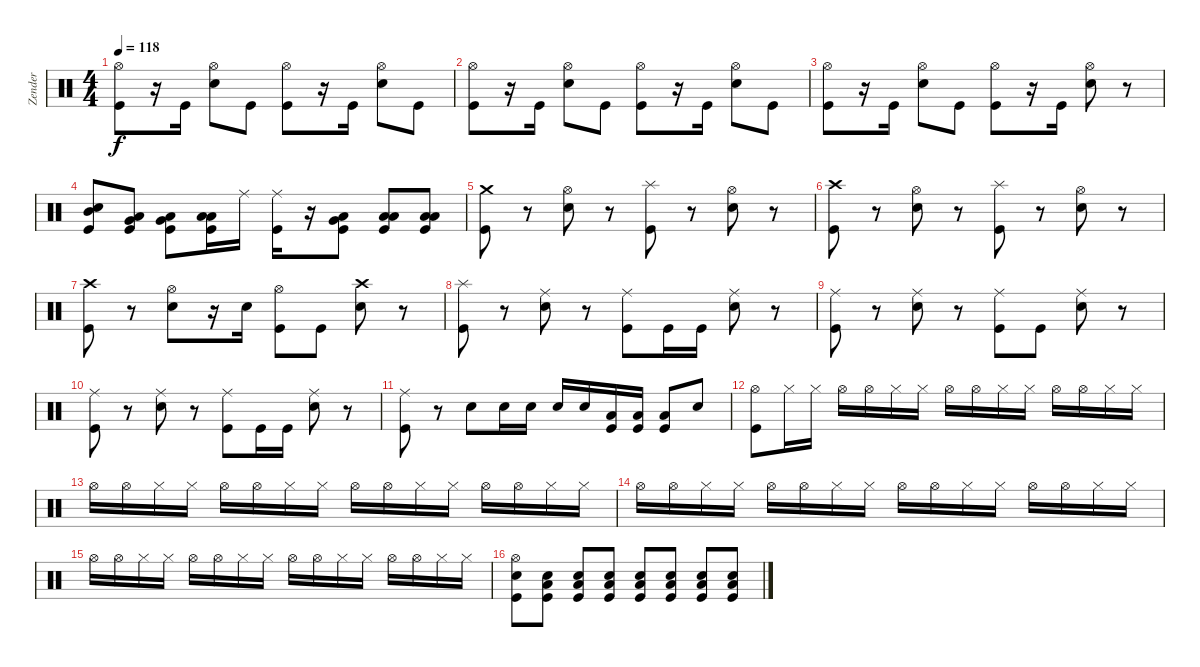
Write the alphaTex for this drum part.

\track ("Zender" "Zender") {instrument percussion}
\staff {score}
\articulation defaults
\ts (4 4)
\tempo 118
\clef neutral
\ks c
("Hi-Hat (open)" "Kick (hit)").8{dy f} r.16 "Kick (hit)".16 ("Hi-Hat (open)" "Snare (hit) 2").8 "Kick (hit)".8 ("Hi-Hat (open)" "Kick (hit)").8 r.16 "Kick (hit)".16 ("Hi-Hat (open)" "Snare (hit) 2").8 "Kick (hit)".8 |
("Hi-Hat (open)" "Kick (hit)").8 r.16 "Kick (hit)".16 ("Hi-Hat (open)" "Snare (hit) 2").8 "Kick (hit)".8 ("Hi-Hat (open)" "Kick (hit)").8 r.16 "Kick (hit)".16 ("Hi-Hat (open)" "Snare (hit) 2").8 "Kick (hit)".8 |
("Hi-Hat (open)" "Kick (hit)").8 r.16 "Kick (hit)".16 ("Hi-Hat (open)" "Snare (hit) 2").8 "Kick (hit)".8 ("Hi-Hat (open)" "Kick (hit)").8 r.16 "Kick (hit)".16 ("Hi-Hat (open)" "Snare (hit) 2").8 r.8 |
("Mid Tom (hit)" "Snare (hit) 2" "Kick (hit)").8 ("Low Tom (hit)" "Very Low Tom (hit)" "Kick (hit)").8 ("Very Low Tom (hit)" "Low Floor Tom (hit)" "Kick (hit)").8 ("Low Floor Tom (hit)" "Low Floor Tom (hit)" "Kick (hit)").16 "Ride (middle)".16 ("Ride (middle)" "Kick (hit)").16 r.16 ("Very Low Tom (hit)" "Low Floor Tom (hit)" "Kick (hit)").8 ("Low Floor Tom (hit)" "Low Floor Tom (hit)" "Kick (hit)").8 ("Low Floor Tom (hit)" "Low Floor Tom (hit)" "Kick (hit)").8 |
("Crash medium (hit)" "Kick (hit)").8 r.8 ("Hi-Hat (open)" "Snare (hit) 2").8 r.8 ("Splash (hit)" "Kick (hit)").8 r.8 ("Hi-Hat (open)" "Snare (hit) 2").8 r.8 |
("Crash high (hit)" "Kick (hit)").8 r.8 ("Hi-Hat (open)" "Snare (hit) 2").8 r.8 ("Splash (hit)" "Kick (hit)").8 r.8 ("Hi-Hat (open)" "Snare (hit) 2").8 r.8 |
("Crash high (hit)" "Kick (hit)").8 r.8 ("Hi-Hat (open)" "Snare (hit) 2").8 r.16 "Snare (hit) 2".16 ("Hi-Hat (open)" "Kick (hit)").8 "Kick (hit)".8 ("Crash high (hit)" "Snare (hit) 2").8 r.8 |
("Splash (hit)" "Kick (hit)").8 r.8 ("Ride (middle)" "Snare (hit) 2").8 r.8 ("Ride (middle)" "Kick (hit)").8 "Kick (hit)".16 "Kick (hit)".16 ("Ride (middle)" "Snare (hit) 2").8 r.8 |
("Ride (middle)" "Kick (hit)").8 r.8 ("Ride (middle)" "Snare (hit) 2").8 r.8 ("Ride (middle)" "Kick (hit)").8 "Kick (hit)".8 ("Ride (middle)" "Snare (hit) 2").8 r.8 |
("Ride (middle)" "Kick (hit)").8 r.8 ("Ride (middle)" "Snare (hit) 2").8 r.8 ("Ride (middle)" "Kick (hit)").8 "Kick (hit)".16 "Kick (hit)".16 ("Ride (middle)" "Snare (hit) 2").8 r.8 |
("Ride (middle)" "Kick (hit)").8 r.8 "Snare (hit) 2".8 "Snare (hit) 2".16 "Snare (hit) 2".16 "Snare (hit) 2".16 "Snare (hit) 2".16 ("Low Floor Tom (hit)" "Kick (hit)").16 ("Low Floor Tom (hit)" "Kick (hit)").16 ("Low Floor Tom (hit)" "Kick (hit)").8 "Snare (hit) 2".8 |
("Hi-Hat (open)" "Kick (hit)").8 "Hi-Hat (closed)".16 "Hi-Hat (closed)".16 "Hi-Hat (open)".16 "Hi-Hat (open)".16 "Hi-Hat (closed)".16 "Hi-Hat (closed)".16 "Hi-Hat (open)".16 "Hi-Hat (open)".16 "Hi-Hat (closed)".16 "Hi-Hat (closed)".16 "Hi-Hat (open)".16 "Hi-Hat (open)".16 "Hi-Hat (closed)".16 "Hi-Hat (closed)".16 |
"Hi-Hat (open)".16 "Hi-Hat (open)".16 "Hi-Hat (closed)".16 "Hi-Hat (closed)".16 "Hi-Hat (open)".16 "Hi-Hat (open)".16 "Hi-Hat (closed)".16 "Hi-Hat (closed)".16 "Hi-Hat (open)".16 "Hi-Hat (open)".16 "Hi-Hat (closed)".16 "Hi-Hat (closed)".16 "Hi-Hat (open)".16 "Hi-Hat (open)".16 "Hi-Hat (closed)".16 "Hi-Hat (closed)".16 |
"Hi-Hat (open)".16 "Hi-Hat (open)".16 "Hi-Hat (closed)".16 "Hi-Hat (closed)".16 "Hi-Hat (open)".16 "Hi-Hat (open)".16 "Hi-Hat (closed)".16 "Hi-Hat (closed)".16 "Hi-Hat (open)".16 "Hi-Hat (open)".16 "Hi-Hat (closed)".16 "Hi-Hat (closed)".16 "Hi-Hat (open)".16 "Hi-Hat (open)".16 "Hi-Hat (closed)".16 "Hi-Hat (closed)".16 |
"Hi-Hat (open)".16 "Hi-Hat (open)".16 "Hi-Hat (closed)".16 "Hi-Hat (closed)".16 "Hi-Hat (open)".16 "Hi-Hat (open)".16 "Hi-Hat (closed)".16 "Hi-Hat (closed)".16 "Hi-Hat (open)".16 "Hi-Hat (open)".16 "Hi-Hat (closed)".16 "Hi-Hat (closed)".16 "Hi-Hat (open)".16 "Hi-Hat (open)".16 "Hi-Hat (closed)".16 "Hi-Hat (closed)".16 |
("Hi-Hat (open)" "Snare (hit) 2" "Kick (hit)").8 ("Low Tom (hit)" "Snare (hit) 2" "Kick (hit)").8 ("Low Tom (hit)" "Snare (hit) 2" "Kick (hit)").8 ("Low Tom (hit)" "Snare (hit) 2" "Kick (hit)").8 ("Low Tom (hit)" "Snare (hit) 2" "Kick (hit)").8 ("Low Tom (hit)" "Snare (hit) 2" "Kick (hit)").8 ("Low Tom (hit)" "Snare (hit) 2" "Kick (hit)").8 ("Low Tom (hit)" "Snare (hit) 2" "Kick (hit)").8
